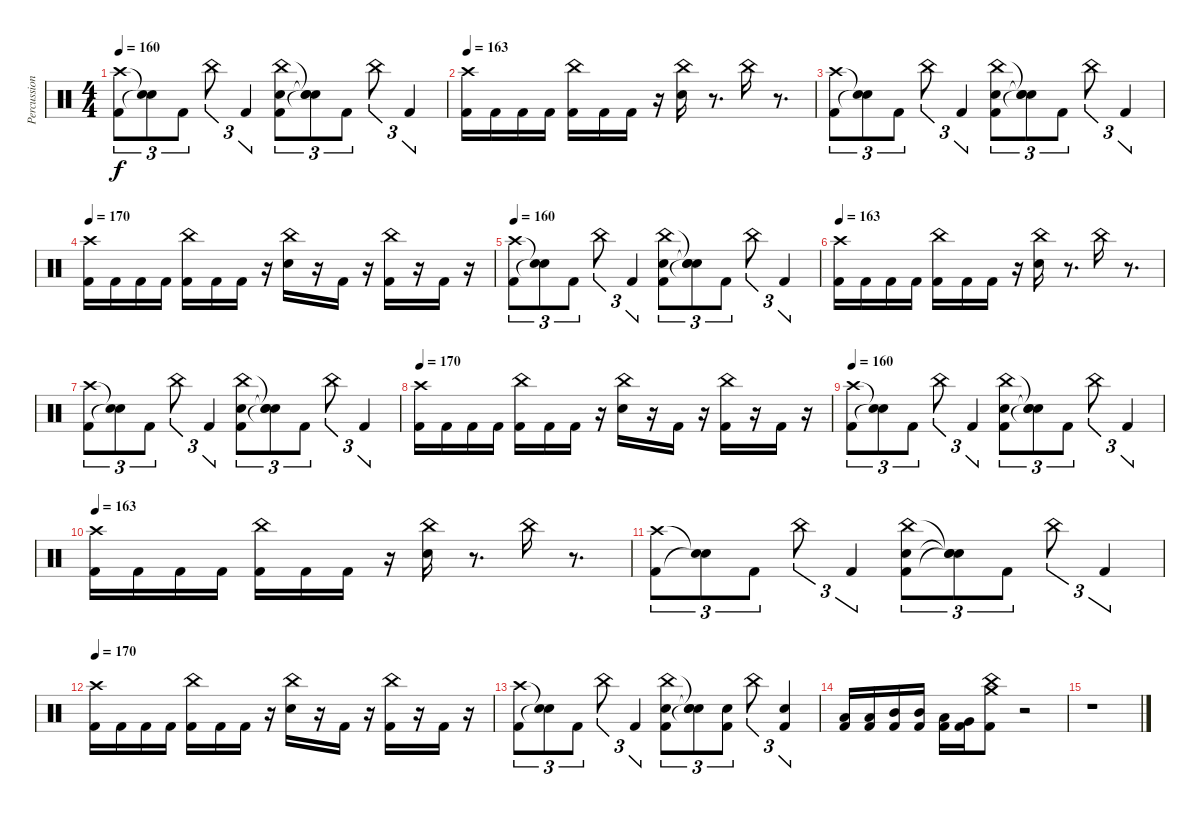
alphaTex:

\track ("Percussion" "Percussion") {instrument percussion}
\staff {score}
\articulation defaults
\ts (4 4)
\tempo 160
\clef neutral
\ks c
("Kick (hit) 2" "Crash high (hit)").8{tu (3 2) dy f} ("Snare (hit)"{t} "Snare (hit)"{t}).8{tu (3 2)} "Kick (hit) 2".8{tu (3 2)} "China (hit)".8{tu (3 2)} "Kick (hit) 2".4{tu (3 2)} ("Kick (hit) 2" "Snare (hit) 2" "China (hit)").8{tu (3 2)} ("Snare (hit)"{t} "Snare (hit)"{t} "Snare (hit)"{t}).8{tu (3 2)} "Kick (hit) 2".8{tu (3 2)} "China (hit)".8{tu (3 2)} "Kick (hit) 2".4{tu (3 2)} |
\tempo 163
("Kick (hit) 2" "Crash high (hit)").16 "Kick (hit) 2".16 "Kick (hit) 2".16 "Kick (hit) 2".16 ("Kick (hit) 2" "China (hit)").16 "Kick (hit) 2".16 "Kick (hit) 2".16 r.16 ("Snare (hit) 2" "China (hit)").16 r.8{d} "China (hit)".16 r.8{d} |
("Kick (hit) 2" "Crash high (hit)").8{tu (3 2)} ("Snare (hit)"{t} "Snare (hit)"{t}).8{tu (3 2)} "Kick (hit) 2".8{tu (3 2)} "China (hit)".8{tu (3 2)} "Kick (hit) 2".4{tu (3 2)} ("Kick (hit) 2" "Snare (hit) 2" "China (hit)").8{tu (3 2)} ("Snare (hit)"{t} "Snare (hit)"{t} "Snare (hit)"{t}).8{tu (3 2)} "Kick (hit) 2".8{tu (3 2)} "China (hit)".8{tu (3 2)} "Kick (hit) 2".4{tu (3 2)} |
\tempo 170
("Kick (hit) 2" "Crash high (hit)").16 "Kick (hit) 2".16 "Kick (hit) 2".16 "Kick (hit) 2".16 ("Kick (hit) 2" "China (hit)").16 "Kick (hit) 2".16 "Kick (hit) 2".16 r.16 ("Snare (hit) 2" "China (hit)").16 r.16 "Kick (hit) 2".16 r.16 ("Kick (hit) 2" "China (hit)").16 r.16 "Kick (hit) 2".16 r.16 |
\tempo 160
("Kick (hit) 2" "Crash high (hit)").8{tu (3 2)} ("Snare (hit)"{t} "Snare (hit)"{t}).8{tu (3 2)} "Kick (hit) 2".8{tu (3 2)} "China (hit)".8{tu (3 2)} "Kick (hit) 2".4{tu (3 2)} ("Kick (hit) 2" "Snare (hit) 2" "China (hit)").8{tu (3 2)} ("Snare (hit)"{t} "Snare (hit)"{t} "Snare (hit)"{t}).8{tu (3 2)} "Kick (hit) 2".8{tu (3 2)} "China (hit)".8{tu (3 2)} "Kick (hit) 2".4{tu (3 2)} |
\tempo 163
("Kick (hit) 2" "Crash high (hit)").16 "Kick (hit) 2".16 "Kick (hit) 2".16 "Kick (hit) 2".16 ("Kick (hit) 2" "China (hit)").16 "Kick (hit) 2".16 "Kick (hit) 2".16 r.16 ("Snare (hit) 2" "China (hit)").16 r.8{d} "China (hit)".16 r.8{d} |
("Kick (hit) 2" "Crash high (hit)").8{tu (3 2)} ("Snare (hit)"{t} "Snare (hit)"{t}).8{tu (3 2)} "Kick (hit) 2".8{tu (3 2)} "China (hit)".8{tu (3 2)} "Kick (hit) 2".4{tu (3 2)} ("Kick (hit) 2" "Snare (hit) 2" "China (hit)").8{tu (3 2)} ("Snare (hit)"{t} "Snare (hit)"{t} "Snare (hit)"{t}).8{tu (3 2)} "Kick (hit) 2".8{tu (3 2)} "China (hit)".8{tu (3 2)} "Kick (hit) 2".4{tu (3 2)} |
\tempo 170
("Kick (hit) 2" "Crash high (hit)").16 "Kick (hit) 2".16 "Kick (hit) 2".16 "Kick (hit) 2".16 ("Kick (hit) 2" "China (hit)").16 "Kick (hit) 2".16 "Kick (hit) 2".16 r.16 ("Snare (hit) 2" "China (hit)").16 r.16 "Kick (hit) 2".16 r.16 ("Kick (hit) 2" "China (hit)").16 r.16 "Kick (hit) 2".16 r.16 |
\tempo 160
("Kick (hit) 2" "Crash high (hit)").8{tu (3 2)} ("Snare (hit)"{t} "Snare (hit)"{t}).8{tu (3 2)} "Kick (hit) 2".8{tu (3 2)} "China (hit)".8{tu (3 2)} "Kick (hit) 2".4{tu (3 2)} ("Kick (hit) 2" "Snare (hit) 2" "China (hit)").8{tu (3 2)} ("Snare (hit)"{t} "Snare (hit)"{t} "Snare (hit)"{t}).8{tu (3 2)} "Kick (hit) 2".8{tu (3 2)} "China (hit)".8{tu (3 2)} "Kick (hit) 2".4{tu (3 2)} |
\tempo 163
("Kick (hit) 2" "Crash high (hit)").16 "Kick (hit) 2".16 "Kick (hit) 2".16 "Kick (hit) 2".16 ("Kick (hit) 2" "China (hit)").16 "Kick (hit) 2".16 "Kick (hit) 2".16 r.16 ("Snare (hit) 2" "China (hit)").16 r.8{d} "China (hit)".16 r.8{d} |
("Kick (hit) 2" "Crash high (hit)").8{tu (3 2)} ("Snare (hit)"{t} "Snare (hit)"{t}).8{tu (3 2)} "Kick (hit) 2".8{tu (3 2)} "China (hit)".8{tu (3 2)} "Kick (hit) 2".4{tu (3 2)} ("Kick (hit) 2" "Snare (hit) 2" "China (hit)").8{tu (3 2)} ("Snare (hit)"{t} "Snare (hit)"{t} "Snare (hit)"{t}).8{tu (3 2)} "Kick (hit) 2".8{tu (3 2)} "China (hit)".8{tu (3 2)} "Kick (hit) 2".4{tu (3 2)} |
\tempo 170
("Kick (hit) 2" "Crash high (hit)").16 "Kick (hit) 2".16 "Kick (hit) 2".16 "Kick (hit) 2".16 ("Kick (hit) 2" "China (hit)").16 "Kick (hit) 2".16 "Kick (hit) 2".16 r.16 ("Snare (hit) 2" "China (hit)").16 r.16 "Kick (hit) 2".16 r.16 ("Kick (hit) 2" "China (hit)").16 r.16 "Kick (hit) 2".16 r.16 |
("Kick (hit) 2" "Crash high (hit)").8{tu (3 2)} ("Snare (hit)"{t} "Snare (hit)"{t}).8{tu (3 2)} "Kick (hit) 2".8{tu (3 2)} "China (hit)".8{tu (3 2)} "Kick (hit) 2".4{tu (3 2)} ("Kick (hit) 2" "Snare (hit) 2" "China (hit)").8{tu (3 2)} ("Snare (hit)"{t} "Snare (hit)"{t} "Snare (hit)"{t}).8{tu (3 2)} ("Kick (hit) 2" "Snare (hit) 2").8{tu (3 2)} "China (hit)".8{tu (3 2)} ("Kick (hit) 2" "Snare (hit) 2").4{tu (3 2)} |
("Kick (hit) 2" "Low Floor Tom (hit)").16 ("Kick (hit) 2" "Low Floor Tom (hit)").16 ("Kick (hit) 2" "Mid Tom (hit)").16 ("Kick (hit) 2" "Mid Tom (hit)").16 ("Kick (hit) 2" "Low Tom (hit)").16 ("Kick (hit) 2" "Very Low Tom (hit)").16 ("Kick (hit) 2" "China (hit)" "Crash medium (hit)").8 r.2 |
r.1
